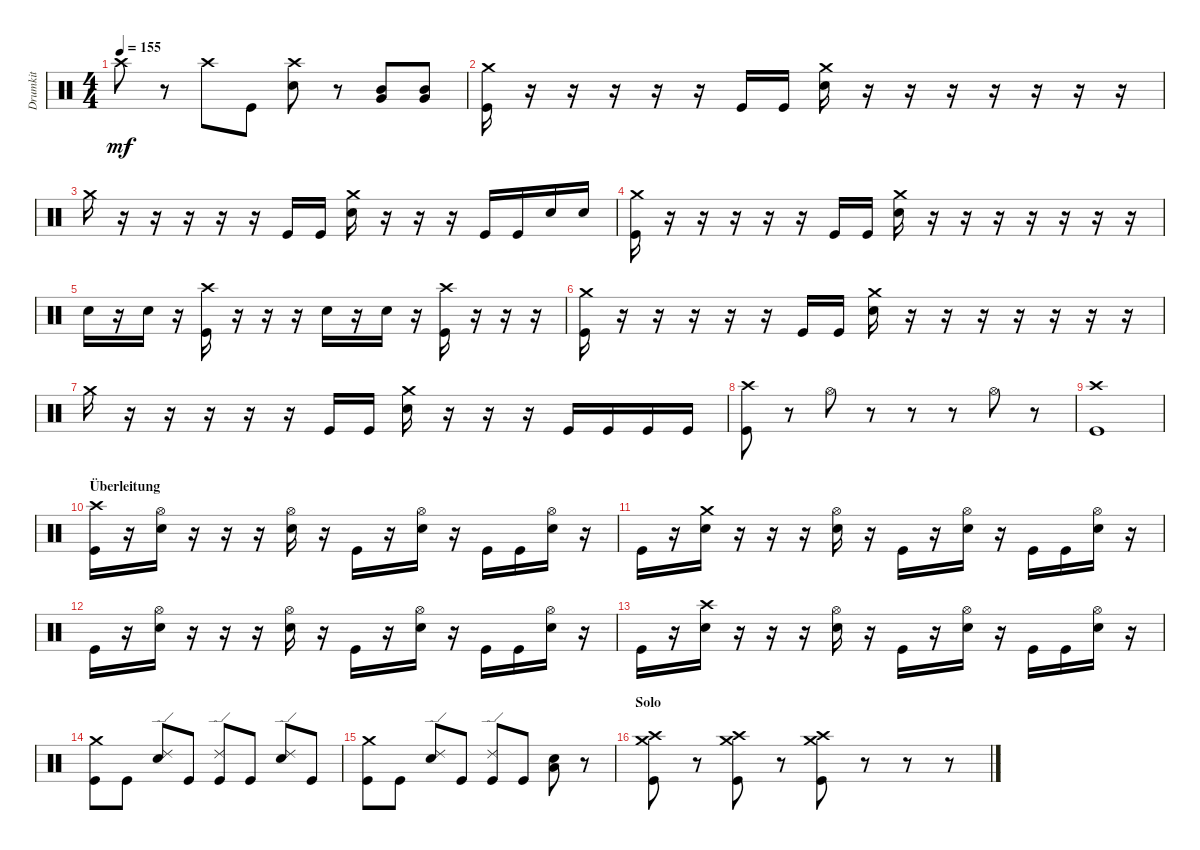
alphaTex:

\track ("Drumkit" "Drumkit") {instrument percussion}
\staff {score}
\articulation defaults
\ts (4 4)
\tempo 155
\clef neutral
\ks c "Crash high (hit)".8{dy mf}
r.8 "Crash high (hit)".8 "Kick (hit)".8 ("Crash high (hit)" "Snare (hit) 2").8 r.8 ("Very Low Tom (hit)" "Mid Tom (hit)").8 ("Very Low Tom (hit)" "Mid Tom (hit)").8 |
("Kick (hit)" "Crash medium (hit)").16 r.16 r.16 r.16 r.16 r.16 "Kick (hit)".16 "Kick (hit)".16 ("Snare (hit) 2" "Crash medium (hit)").16 r.16 r.16 r.16 r.16 r.16 r.16 r.16 |
"Crash medium (hit)".16 r.16 r.16 r.16 r.16 r.16 "Kick (hit)".16 "Kick (hit)".16 ("Snare (hit) 2" "Crash medium (hit)").16 r.16 r.16 r.16 "Kick (hit)".16 "Kick (hit)".16 "Snare (hit) 2".16 "Snare (hit) 2".16 |
("Kick (hit)" "Crash medium (hit)").16 r.16 r.16 r.16 r.16 r.16 "Kick (hit)".16 "Kick (hit)".16 ("Snare (hit) 2" "Crash medium (hit)").16 r.16 r.16 r.16 r.16 r.16 r.16 r.16 |
"Snare (hit) 2".16 r.16 "Snare (hit) 2".16 r.16 ("Kick (hit)" "Crash high (hit)").16 r.16 r.16 r.16 "Snare (hit) 2".16 r.16 "Snare (hit) 2".16 r.16 ("Kick (hit)" "Crash high (hit)").16 r.16 r.16 r.16 |
("Kick (hit)" "Crash medium (hit)").16 r.16 r.16 r.16 r.16 r.16 "Kick (hit)".16 "Kick (hit)".16 ("Snare (hit) 2" "Crash medium (hit)").16 r.16 r.16 r.16 r.16 r.16 r.16 r.16 |
"Crash medium (hit)".16 r.16 r.16 r.16 r.16 r.16 "Kick (hit)".16 "Kick (hit)".16 ("Snare (hit) 2" "Crash medium (hit)").16 r.16 r.16 r.16 "Kick (hit)".16 "Kick (hit)".16 "Kick (hit)".16 "Kick (hit)".16 |
("Kick (hit)" "Crash high (hit)").8 r.8 "Hi-Hat (open)".8 r.8 r.8 r.8 "Hi-Hat (open)".8 r.8 |
("Kick (hit)" "Crash high (hit)").1 |
\section ("" "Überleitung")
("Kick (hit)" "Crash high (hit)").16 r.16 ("Snare (hit) 2" "Hi-Hat (open)").16 r.16 r.16 r.16 ("Snare (hit) 2" "Hi-Hat (open)").16 r.16 "Kick (hit)".16 r.16 ("Snare (hit) 2" "Hi-Hat (open)").16 r.16 "Kick (hit)".16 "Kick (hit)".16 ("Snare (hit) 2" "Hi-Hat (open)").16 r.16 |
"Kick (hit)".16 r.16 ("Snare (hit) 2" "Crash medium (hit)").16 r.16 r.16 r.16 ("Snare (hit) 2" "Hi-Hat (open)").16 r.16 "Kick (hit)".16 r.16 ("Snare (hit) 2" "Hi-Hat (open)").16 r.16 "Kick (hit)".16 "Kick (hit)".16 ("Snare (hit) 2" "Hi-Hat (open)").16 r.16 |
"Kick (hit)".16 r.16 ("Snare (hit) 2" "Hi-Hat (open)").16 r.16 r.16 r.16 ("Snare (hit) 2" "Hi-Hat (open)").16 r.16 "Kick (hit)".16 r.16 ("Snare (hit) 2" "Hi-Hat (open)").16 r.16 "Kick (hit)".16 "Kick (hit)".16 ("Snare (hit) 2" "Hi-Hat (open)").16 r.16 |
"Kick (hit)".16 r.16 ("Snare (hit) 2" "Crash high (hit)").16 r.16 r.16 r.16 ("Snare (hit) 2" "Hi-Hat (open)").16 r.16 "Kick (hit)".16 r.16 ("Snare (hit) 2" "Hi-Hat (open)").16 r.16 "Kick (hit)".16 "Kick (hit)".16 ("Snare (hit) 2" "Hi-Hat (open)").16 r.16 |
("Kick (hit)" "Crash medium (hit)").8 "Kick (hit)".8 ("Snare (hit) 2" "Ride (edge) 2").8 "Kick (hit)".8 ("Kick (hit)" "Ride (edge) 2").8 "Kick (hit)".8 ("Snare (hit) 2" "Ride (edge) 2").8 "Kick (hit)".8 |
("Kick (hit)" "Crash medium (hit)").8 "Kick (hit)".8 ("Snare (hit) 2" "Ride (edge) 2").8 "Kick (hit)".8 ("Kick (hit)" "Ride (edge) 2").8 "Kick (hit)".8 ("Snare (hit) 2" "Low Floor Tom (hit)").8 r.8 |
\section ("" "Solo")
("Kick (hit)" "Crash high (hit)" "Crash medium (hit)").8 r.8 ("Kick (hit)" "Crash high (hit)" "Crash medium (hit)").8 r.8 ("Kick (hit)" "Crash high (hit)" "Crash medium (hit)").8 r.8 r.8 r.8
